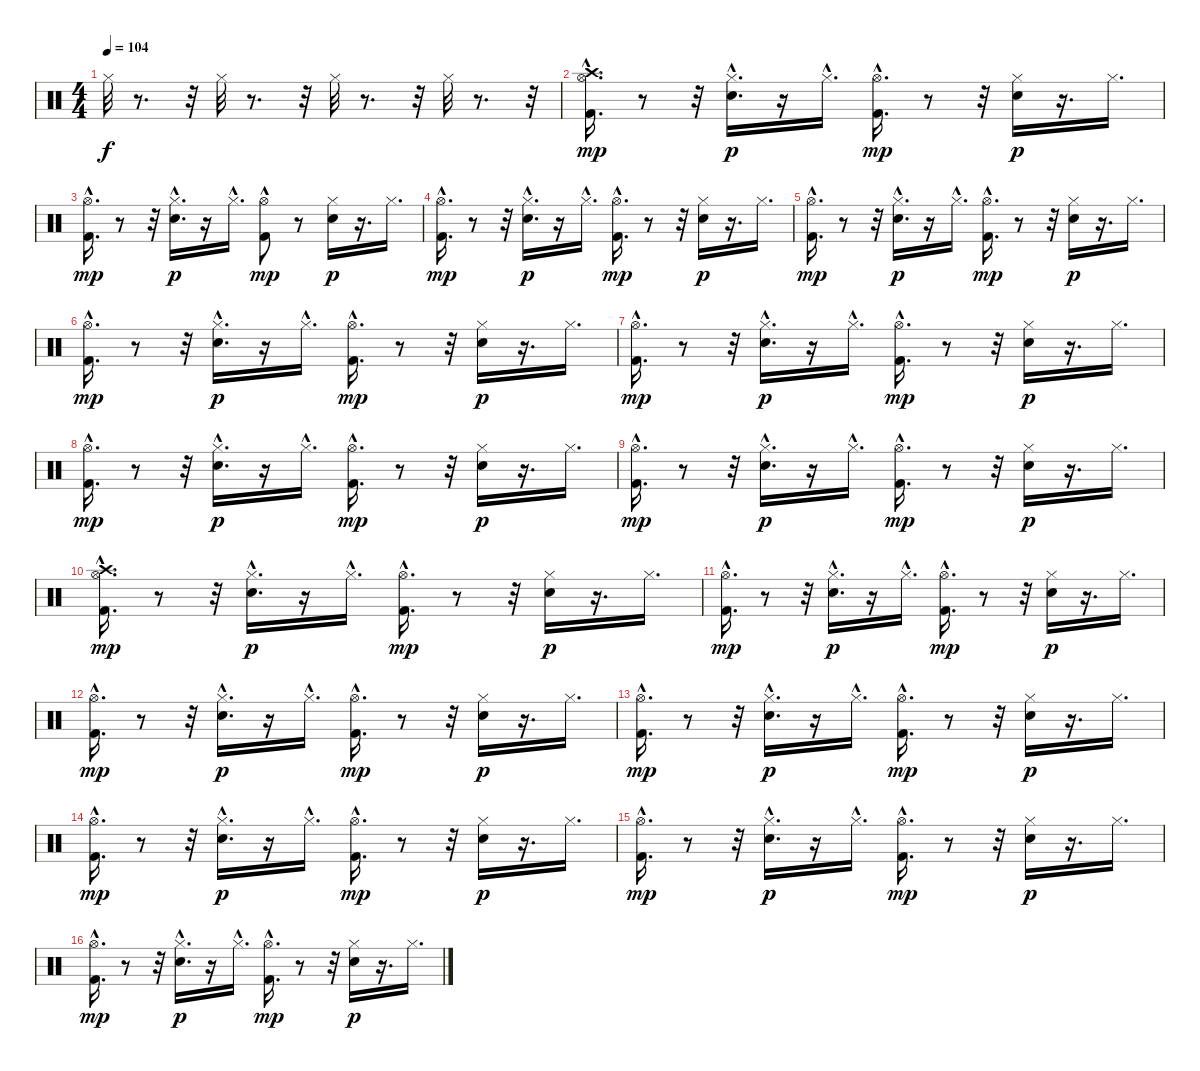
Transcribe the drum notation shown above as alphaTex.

\track "" {instrument percussion}
\staff {score}
\articulation defaults
\ts (4 4)
\tempo 104
\clef neutral
\ks c "Hi-Hat (closed)".32{dy f}
r.8{d} r.32 "Hi-Hat (closed)".32 r.8{d} r.32 "Hi-Hat (closed)".32 r.8{d} r.32 "Hi-Hat (closed)".32 r.8{d} r.32 |
("Crash high (hit)"{hac} "Hi-Hat (open)"{hac} "Kick (hit) 2"{hac}).16{d dy mp} r.8 r.32 ("Hi-Hat (closed)"{hac} "Snare (hit) 2"{hac}).16{d dy p} r.16 "Hi-Hat (closed)"{hac}.16{d} ("Hi-Hat (open)"{hac} "Kick (hit) 2"{hac}).16{d dy mp} r.8 r.32 ("Hi-Hat (closed)" "Snare (hit) 2").16{dy p} r.16{d} "Hi-Hat (closed)".16{d} |
("Hi-Hat (open)"{hac} "Kick (hit) 2"{hac}).16{d dy mp} r.8 r.32 ("Hi-Hat (closed)"{hac} "Snare (hit) 2"{hac}).16{d dy p} r.16 "Hi-Hat (closed)"{hac}.16{d} ("Hi-Hat (open)" "Kick (hit) 2"{hac}).8{dy mp} r.8 ("Hi-Hat (closed)" "Snare (hit) 2").16{dy p} r.16{d} "Hi-Hat (closed)".16{d} |
("Hi-Hat (open)"{hac} "Kick (hit) 2"{hac}).16{d dy mp} r.8 r.32 ("Hi-Hat (closed)"{hac} "Snare (hit) 2"{hac}).16{d dy p} r.16 "Hi-Hat (closed)"{hac}.16{d} ("Hi-Hat (open)"{hac} "Kick (hit) 2"{hac}).16{d dy mp} r.8 r.32 ("Hi-Hat (closed)" "Snare (hit) 2").16{dy p} r.16{d} "Hi-Hat (closed)".16{d} |
("Hi-Hat (open)"{hac} "Kick (hit) 2"{hac}).16{d dy mp} r.8 r.32 ("Hi-Hat (closed)"{hac} "Snare (hit) 2"{hac}).16{d dy p} r.16 "Hi-Hat (closed)"{hac}.16{d} ("Hi-Hat (open)"{hac} "Kick (hit) 2"{hac}).16{d dy mp} r.8 r.32 ("Hi-Hat (closed)" "Snare (hit) 2").16{dy p} r.16{d} "Hi-Hat (closed)".16{d} |
("Hi-Hat (open)"{hac} "Kick (hit) 2"{hac}).16{d dy mp} r.8 r.32 ("Hi-Hat (closed)"{hac} "Snare (hit) 2"{hac}).16{d dy p} r.16 "Hi-Hat (closed)"{hac}.16{d} ("Hi-Hat (open)"{hac} "Kick (hit) 2"{hac}).16{d dy mp} r.8 r.32 ("Hi-Hat (closed)" "Snare (hit) 2").16{dy p} r.16{d} "Hi-Hat (closed)".16{d} |
("Hi-Hat (open)"{hac} "Kick (hit) 2"{hac}).16{d dy mp} r.8 r.32 ("Hi-Hat (closed)"{hac} "Snare (hit) 2"{hac}).16{d dy p} r.16 "Hi-Hat (closed)"{hac}.16{d} ("Hi-Hat (open)"{hac} "Kick (hit) 2"{hac}).16{d dy mp} r.8 r.32 ("Hi-Hat (closed)" "Snare (hit) 2").16{dy p} r.16{d} "Hi-Hat (closed)".16{d} |
("Hi-Hat (open)"{hac} "Kick (hit) 2"{hac}).16{d dy mp} r.8 r.32 ("Hi-Hat (closed)"{hac} "Snare (hit) 2"{hac}).16{d dy p} r.16 "Hi-Hat (closed)"{hac}.16{d} ("Hi-Hat (open)"{hac} "Kick (hit) 2"{hac}).16{d dy mp} r.8 r.32 ("Hi-Hat (closed)" "Snare (hit) 2").16{dy p} r.16{d} "Hi-Hat (closed)".16{d} |
("Hi-Hat (open)"{hac} "Kick (hit) 2"{hac}).16{d dy mp} r.8 r.32 ("Hi-Hat (closed)"{hac} "Snare (hit) 2"{hac}).16{d dy p} r.16 "Hi-Hat (closed)"{hac}.16{d} ("Hi-Hat (open)"{hac} "Kick (hit) 2"{hac}).16{d dy mp} r.8 r.32 ("Hi-Hat (closed)" "Snare (hit) 2").16{dy p} r.16{d} "Hi-Hat (closed)".16{d} |
("Crash high (hit)"{hac} "Hi-Hat (open)"{hac} "Kick (hit) 2"{hac}).16{d dy mp} r.8 r.32 ("Hi-Hat (closed)"{hac} "Snare (hit) 2"{hac}).16{d dy p} r.16 "Hi-Hat (closed)"{hac}.16{d} ("Hi-Hat (open)"{hac} "Kick (hit) 2"{hac}).16{d dy mp} r.8 r.32 ("Hi-Hat (closed)" "Snare (hit) 2").16{dy p} r.16{d} "Hi-Hat (closed)".16{d} |
("Hi-Hat (open)"{hac} "Kick (hit) 2"{hac}).16{d dy mp} r.8 r.32 ("Hi-Hat (closed)"{hac} "Snare (hit) 2"{hac}).16{d dy p} r.16 "Hi-Hat (closed)"{hac}.16{d} ("Hi-Hat (open)"{hac} "Kick (hit) 2"{hac}).16{d dy mp} r.8 r.32 ("Hi-Hat (closed)" "Snare (hit) 2").16{dy p} r.16{d} "Hi-Hat (closed)".16{d} |
("Hi-Hat (open)"{hac} "Kick (hit) 2"{hac}).16{d dy mp} r.8 r.32 ("Hi-Hat (closed)"{hac} "Snare (hit) 2"{hac}).16{d dy p} r.16 "Hi-Hat (closed)"{hac}.16{d} ("Hi-Hat (open)"{hac} "Kick (hit) 2"{hac}).16{d dy mp} r.8 r.32 ("Hi-Hat (closed)" "Snare (hit) 2").16{dy p} r.16{d} "Hi-Hat (closed)".16{d} |
("Hi-Hat (open)"{hac} "Kick (hit) 2"{hac}).16{d dy mp} r.8 r.32 ("Hi-Hat (closed)"{hac} "Snare (hit) 2"{hac}).16{d dy p} r.16 "Hi-Hat (closed)"{hac}.16{d} ("Hi-Hat (open)"{hac} "Kick (hit) 2"{hac}).16{d dy mp} r.8 r.32 ("Hi-Hat (closed)" "Snare (hit) 2").16{dy p} r.16{d} "Hi-Hat (closed)".16{d} |
("Hi-Hat (open)"{hac} "Kick (hit) 2"{hac}).16{d dy mp} r.8 r.32 ("Hi-Hat (closed)"{hac} "Snare (hit) 2"{hac}).16{d dy p} r.16 "Hi-Hat (closed)"{hac}.16{d} ("Hi-Hat (open)"{hac} "Kick (hit) 2"{hac}).16{d dy mp} r.8 r.32 ("Hi-Hat (closed)" "Snare (hit) 2").16{dy p} r.16{d} "Hi-Hat (closed)".16{d} |
("Hi-Hat (open)"{hac} "Kick (hit) 2"{hac}).16{d dy mp} r.8 r.32 ("Hi-Hat (closed)"{hac} "Snare (hit) 2"{hac}).16{d dy p} r.16 "Hi-Hat (closed)"{hac}.16{d} ("Hi-Hat (open)"{hac} "Kick (hit) 2"{hac}).16{d dy mp} r.8 r.32 ("Hi-Hat (closed)" "Snare (hit) 2").16{dy p} r.16{d} "Hi-Hat (closed)".16{d} |
("Hi-Hat (open)"{hac} "Kick (hit) 2"{hac}).16{d dy mp} r.8 r.32 ("Hi-Hat (closed)"{hac} "Snare (hit) 2"{hac}).16{d dy p} r.16 "Hi-Hat (closed)"{hac}.16{d} ("Hi-Hat (open)"{hac} "Kick (hit) 2"{hac}).16{d dy mp} r.8 r.32 ("Hi-Hat (closed)" "Snare (hit) 2").16{dy p} r.16{d} "Hi-Hat (closed)".16{d}
